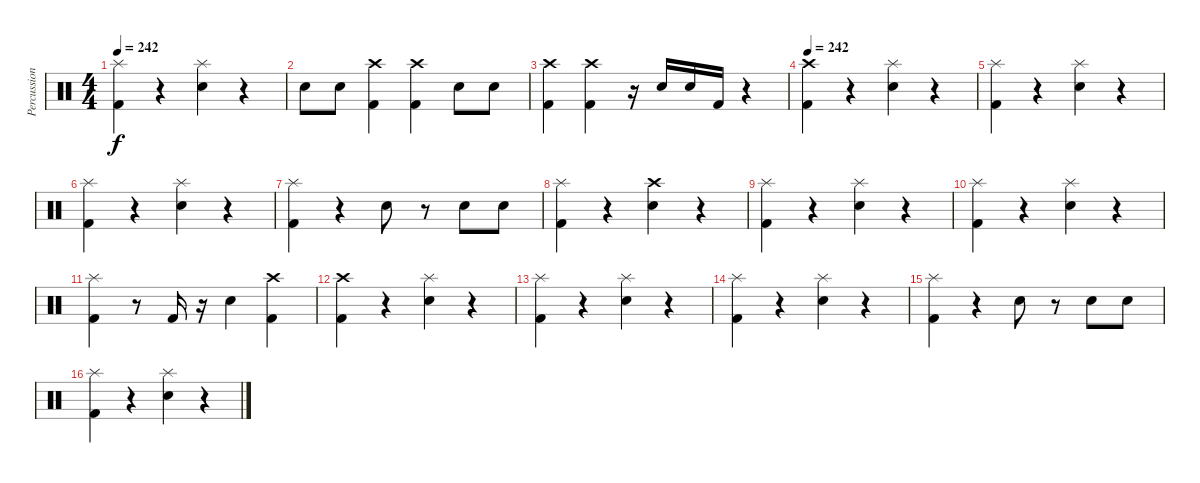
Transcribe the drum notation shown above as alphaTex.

\track ("Percussion" "Percussion") {instrument percussion}
\staff {score}
\articulation defaults
\ts (4 4)
\tempo 242
\clef neutral
\ks c
("Splash (hit)" "Kick (hit) 2").4{dy f} r.4 ("Splash (hit)" "Electric Snare (hit)").4 r.4 |
"Electric Snare (hit)".8 "Electric Snare (hit)".8 ("Crash high (hit)" "Kick (hit) 2").4 ("Crash high (hit)" "Kick (hit) 2").4 "Electric Snare (hit)".8 "Electric Snare (hit)".8 |
("Crash high (hit)" "Kick (hit) 2").4 ("Crash high (hit)" "Kick (hit) 2").4 r.16 "Electric Snare (hit)".16 "Electric Snare (hit)".16 "Kick (hit) 2".16 r.4 |
\tempo 242
("Crash high (hit)" "Kick (hit) 2").4 r.4 ("Splash (hit)" "Electric Snare (hit)").4 r.4 |
("Splash (hit)" "Kick (hit) 2").4 r.4 ("Splash (hit)" "Electric Snare (hit)").4 r.4 |
("Splash (hit)" "Kick (hit) 2").4 r.4 ("Splash (hit)" "Electric Snare (hit)").4 r.4 |
("Splash (hit)" "Kick (hit) 2").4 r.4 "Electric Snare (hit)".8 r.8 "Electric Snare (hit)".8 "Electric Snare (hit)".8 |
("Splash (hit)" "Kick (hit) 2").4 r.4 ("Crash high (hit)" "Electric Snare (hit)").4 r.4 |
("Splash (hit)" "Kick (hit) 2").4 r.4 ("Splash (hit)" "Electric Snare (hit)").4 r.4 |
("Splash (hit)" "Kick (hit) 2").4 r.4 ("Splash (hit)" "Electric Snare (hit)").4 r.4 |
("Splash (hit)" "Kick (hit) 2").4 r.8 "Kick (hit) 2".16 r.16 "Electric Snare (hit)".4 ("Crash high (hit)" "Kick (hit) 2").4 |
("Crash high (hit)" "Kick (hit) 2").4 r.4 ("Splash (hit)" "Electric Snare (hit)").4 r.4 |
("Splash (hit)" "Kick (hit) 2").4 r.4 ("Splash (hit)" "Electric Snare (hit)").4 r.4 |
("Splash (hit)" "Kick (hit) 2").4 r.4 ("Splash (hit)" "Electric Snare (hit)").4 r.4 |
("Splash (hit)" "Kick (hit) 2").4 r.4 "Electric Snare (hit)".8 r.8 "Electric Snare (hit)".8 "Electric Snare (hit)".8 |
("Splash (hit)" "Kick (hit) 2").4 r.4 ("Splash (hit)" "Electric Snare (hit)").4 r.4
